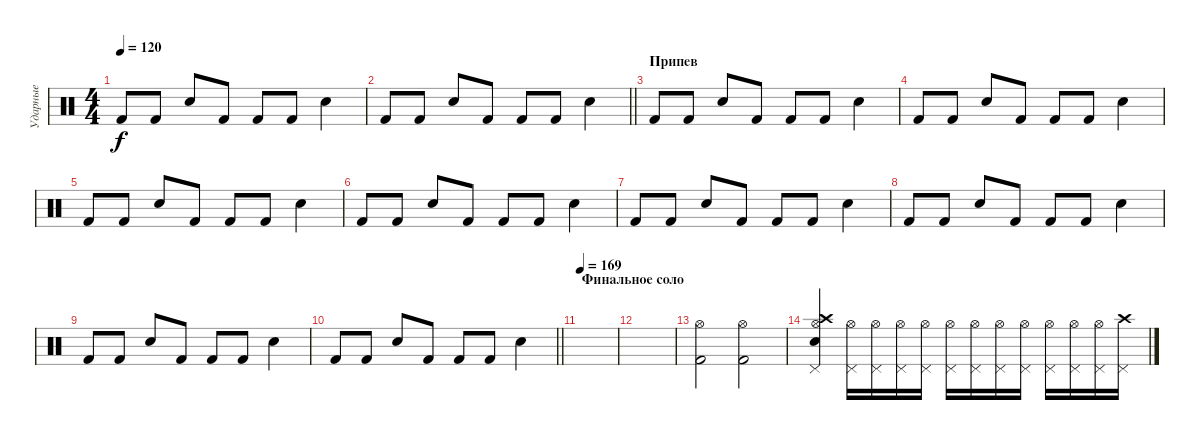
\track ("Ударные" "Ударные") {instrument percussion}
\staff {score}
\articulation defaults
\ts (4 4)
\tempo 120
\clef neutral
\ks c "Kick (hit) 2".8{dy f} "Kick (hit) 2".8 "Electric Snare (hit)".8 "Kick (hit) 2".8 "Kick (hit) 2".8 "Kick (hit) 2".8 "Electric Snare (hit)".4
|
\barLineRight lightlight "Kick (hit) 2".8 "Kick (hit) 2".8 "Electric Snare (hit)".8 "Kick (hit) 2".8 "Kick (hit) 2".8 "Kick (hit) 2".8 "Electric Snare (hit)".4
|
\section ("" "Припев")
"Kick (hit) 2".8 "Kick (hit) 2".8 "Electric Snare (hit)".8 "Kick (hit) 2".8 "Kick (hit) 2".8 "Kick (hit) 2".8 "Electric Snare (hit)".4 |
"Kick (hit) 2".8 "Kick (hit) 2".8 "Electric Snare (hit)".8 "Kick (hit) 2".8 "Kick (hit) 2".8 "Kick (hit) 2".8 "Electric Snare (hit)".4 |
"Kick (hit) 2".8 "Kick (hit) 2".8 "Electric Snare (hit)".8 "Kick (hit) 2".8 "Kick (hit) 2".8 "Kick (hit) 2".8 "Electric Snare (hit)".4 |
"Kick (hit) 2".8 "Kick (hit) 2".8 "Electric Snare (hit)".8 "Kick (hit) 2".8 "Kick (hit) 2".8 "Kick (hit) 2".8 "Electric Snare (hit)".4 |
"Kick (hit) 2".8 "Kick (hit) 2".8 "Electric Snare (hit)".8 "Kick (hit) 2".8 "Kick (hit) 2".8 "Kick (hit) 2".8 "Electric Snare (hit)".4 |
"Kick (hit) 2".8 "Kick (hit) 2".8 "Electric Snare (hit)".8 "Kick (hit) 2".8 "Kick (hit) 2".8 "Kick (hit) 2".8 "Electric Snare (hit)".4 |
"Kick (hit) 2".8 "Kick (hit) 2".8 "Electric Snare (hit)".8 "Kick (hit) 2".8 "Kick (hit) 2".8 "Kick (hit) 2".8 "Electric Snare (hit)".4 |
\barLineRight lightlight "Kick (hit) 2".8 "Kick (hit) 2".8 "Electric Snare (hit)".8 "Kick (hit) 2".8 "Kick (hit) 2".8 "Kick (hit) 2".8 "Electric Snare (hit)".4
|
\section ("" "Финальное соло")
\tempo 169
|
|
("Hi-Hat (open)" "Kick (hit) 2").2 ("Hi-Hat (open)" "Kick (hit) 2").2 |
("Crash high (hit)" "Hi-Hat (open)" "Electric Snare (hit)" "Pedal Hi-Hat (hit)").4 ("Hi-Hat (open)" "Pedal Hi-Hat (hit)").16 ("Hi-Hat (open)" "Pedal Hi-Hat (hit)").16 ("Hi-Hat (open)" "Pedal Hi-Hat (hit)").16 ("Hi-Hat (open)" "Pedal Hi-Hat (hit)").16 ("Hi-Hat (open)" "Pedal Hi-Hat (hit)").16 ("Hi-Hat (open)" "Pedal Hi-Hat (hit)").16 ("Hi-Hat (open)" "Pedal Hi-Hat (hit)").16 ("Hi-Hat (open)" "Pedal Hi-Hat (hit)").16 ("Hi-Hat (open)" "Pedal Hi-Hat (hit)").16 ("Hi-Hat (open)" "Pedal Hi-Hat (hit)").16 ("Hi-Hat (open)" "Pedal Hi-Hat (hit)").16 ("Crash high (hit)" "Pedal Hi-Hat (hit)").16
